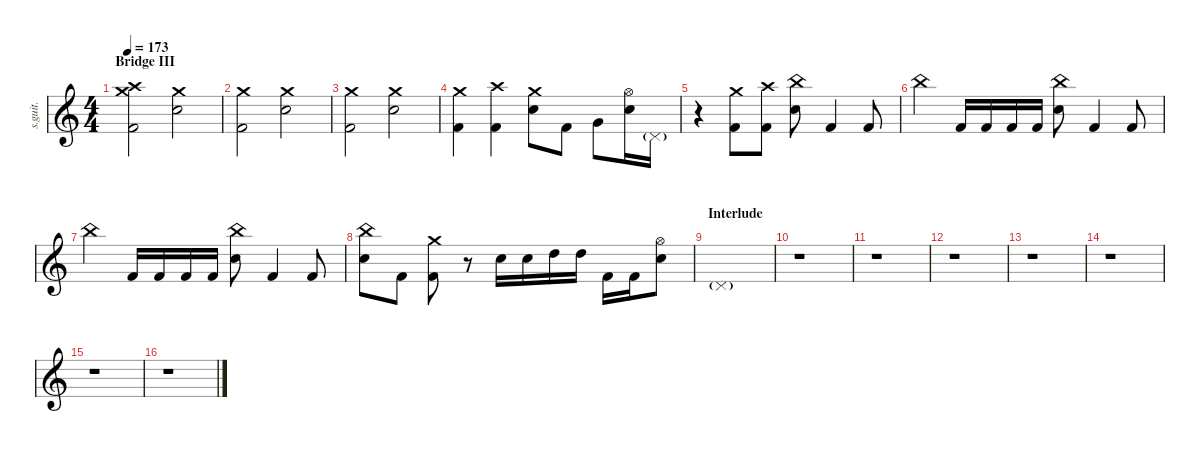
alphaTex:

\defaultSystemsLayout 4
\hideDynamics
\bracketExtendMode nobrackets
\track ("II" "s.guit.") {instrument percussion}
\staff {score}
\articulation defaults
\ts (4 4)
\beaming (8 2 2 2 2)
\section ("" "Bridge III")
\tempo 173
\clef g2
\ks c
("Kick (hit) 2" "Crash high (hit)" "Crash medium (hit)").2{lyrics (0 "") lyrics (1 "") lyrics (2 "") lyrics (3 "") lyrics (4 "") dy mf} ("Snare (hit) 2" "Crash medium (hit)").2{lyrics (0 "") lyrics (1 "") lyrics (2 "") lyrics (3 "") lyrics (4 "")} |
("Kick (hit) 2" "Crash medium (hit)").2{lyrics (0 "") lyrics (1 "") lyrics (2 "") lyrics (3 "") lyrics (4 "")} ("Crash medium (hit)" "Snare (hit) 2").2{lyrics (0 "") lyrics (1 "") lyrics (2 "") lyrics (3 "") lyrics (4 "")} |
("Kick (hit) 2" "Crash medium (hit)").2{lyrics (0 "") lyrics (1 "") lyrics (2 "") lyrics (3 "") lyrics (4 "")} ("Crash medium (hit)" "Snare (hit) 2").2{lyrics (0 "") lyrics (1 "") lyrics (2 "") lyrics (3 "") lyrics (4 "")} |
("Kick (hit) 2" "Crash medium (hit)").4{lyrics (0 "") lyrics (1 "") lyrics (2 "") lyrics (3 "") lyrics (4 "")} ("Kick (hit) 2" "Crash high (hit)").4{lyrics (0 "") lyrics (1 "") lyrics (2 "") lyrics (3 "") lyrics (4 "")} ("Crash medium (hit)" "Snare (hit) 2").8{lyrics (0 "") lyrics (1 "") lyrics (2 "") lyrics (3 "") lyrics (4 "")} "Kick (hit) 2".8{lyrics (0 "") lyrics (1 "") lyrics (2 "") lyrics (3 "") lyrics (4 "")} "Very Low Tom (hit)".8{lyrics (0 "") lyrics (1 "") lyrics (2 "") lyrics (3 "") lyrics (4 "")} ("Snare (hit) 2" "Hi-Hat (open)").16{lyrics (0 "") lyrics (1 "") lyrics (2 "") lyrics (3 "") lyrics (4 "")} "Pedal Hi-Hat (hit)"{g}.16{lyrics (0 "") lyrics (1 "") lyrics (2 "") lyrics (3 "") lyrics (4 "") dy pp} |
r.4 ("Kick (hit) 2" "Crash medium (hit)").8{lyrics (0 "") lyrics (1 "") lyrics (2 "") lyrics (3 "") lyrics (4 "") dy mf} ("Kick (hit) 2" "Crash high (hit)").8{lyrics (0 "") lyrics (1 "") lyrics (2 "") lyrics (3 "") lyrics (4 "")} ("Snare (hit) 2" "China (hit)").8{lyrics (0 "") lyrics (1 "") lyrics (2 "") lyrics (3 "") lyrics (4 "")} "Kick (hit) 2".4{lyrics (0 "") lyrics (1 "") lyrics (2 "") lyrics (3 "") lyrics (4 "")} "Kick (hit) 2".8{lyrics (0 "") lyrics (1 "") lyrics (2 "") lyrics (3 "") lyrics (4 "")} |
"China (hit)".4{lyrics (0 "") lyrics (1 "") lyrics (2 "") lyrics (3 "") lyrics (4 "")} "Kick (hit) 2".16{lyrics (0 "") lyrics (1 "") lyrics (2 "") lyrics (3 "") lyrics (4 "")} "Kick (hit) 2".16{lyrics (0 "") lyrics (1 "") lyrics (2 "") lyrics (3 "") lyrics (4 "")} "Kick (hit) 2".16{lyrics (0 "") lyrics (1 "") lyrics (2 "") lyrics (3 "") lyrics (4 "")} "Kick (hit) 2".16{lyrics (0 "") lyrics (1 "") lyrics (2 "") lyrics (3 "") lyrics (4 "")} ("China (hit)" "Snare (hit) 2").8{lyrics (0 "") lyrics (1 "") lyrics (2 "") lyrics (3 "") lyrics (4 "")} "Kick (hit) 2".4{lyrics (0 "") lyrics (1 "") lyrics (2 "") lyrics (3 "") lyrics (4 "")} "Kick (hit) 2".8{lyrics (0 "") lyrics (1 "") lyrics (2 "") lyrics (3 "") lyrics (4 "")} |
"China (hit)".4{lyrics (0 "") lyrics (1 "") lyrics (2 "") lyrics (3 "") lyrics (4 "")} "Kick (hit) 2".16{lyrics (0 "") lyrics (1 "") lyrics (2 "") lyrics (3 "") lyrics (4 "")} "Kick (hit) 2".16{lyrics (0 "") lyrics (1 "") lyrics (2 "") lyrics (3 "") lyrics (4 "")} "Kick (hit) 2".16{lyrics (0 "") lyrics (1 "") lyrics (2 "") lyrics (3 "") lyrics (4 "")} "Kick (hit) 2".16{lyrics (0 "") lyrics (1 "") lyrics (2 "") lyrics (3 "") lyrics (4 "")} ("China (hit)" "Snare (hit) 2").8{lyrics (0 "") lyrics (1 "") lyrics (2 "") lyrics (3 "") lyrics (4 "")} "Kick (hit) 2".4{lyrics (0 "") lyrics (1 "") lyrics (2 "") lyrics (3 "") lyrics (4 "")} "Kick (hit) 2".8{lyrics (0 "") lyrics (1 "") lyrics (2 "") lyrics (3 "") lyrics (4 "")} |
("Snare (hit) 2" "China (hit)").8{lyrics (0 "") lyrics (1 "") lyrics (2 "") lyrics (3 "") lyrics (4 "")} "Kick (hit) 2".8{lyrics (0 "") lyrics (1 "") lyrics (2 "") lyrics (3 "") lyrics (4 "")} ("Kick (hit) 2" "Crash medium (hit)").8{lyrics (0 "") lyrics (1 "") lyrics (2 "") lyrics (3 "") lyrics (4 "")} r.8 "Snare (hit) 2".16{lyrics (0 "") lyrics (1 "") lyrics (2 "") lyrics (3 "") lyrics (4 "")} "Snare (hit) 2".16{lyrics (0 "") lyrics (1 "") lyrics (2 "") lyrics (3 "") lyrics (4 "")} "High Tom (hit)".16{lyrics (0 "") lyrics (1 "") lyrics (2 "") lyrics (3 "") lyrics (4 "")} "High Tom (hit)".16{lyrics (0 "") lyrics (1 "") lyrics (2 "") lyrics (3 "") lyrics (4 "")} "Kick (hit) 2".16{lyrics (0 "") lyrics (1 "") lyrics (2 "") lyrics (3 "") lyrics (4 "")} "Kick (hit) 2".16{lyrics (0 "") lyrics (1 "") lyrics (2 "") lyrics (3 "") lyrics (4 "")} ("Snare (hit) 2" "Hi-Hat (open)").8{lyrics (0 "") lyrics (1 "") lyrics (2 "") lyrics (3 "") lyrics (4 "")} |
\section ("" "Interlude")
"Pedal Hi-Hat (hit)"{g}.1{lyrics (0 "") lyrics (1 "") lyrics (2 "") lyrics (3 "") lyrics (4 "") dy pp} |
r.1 |
r.1 |
r.1 |
r.1 |
r.1 |
r.1 |
r.1
